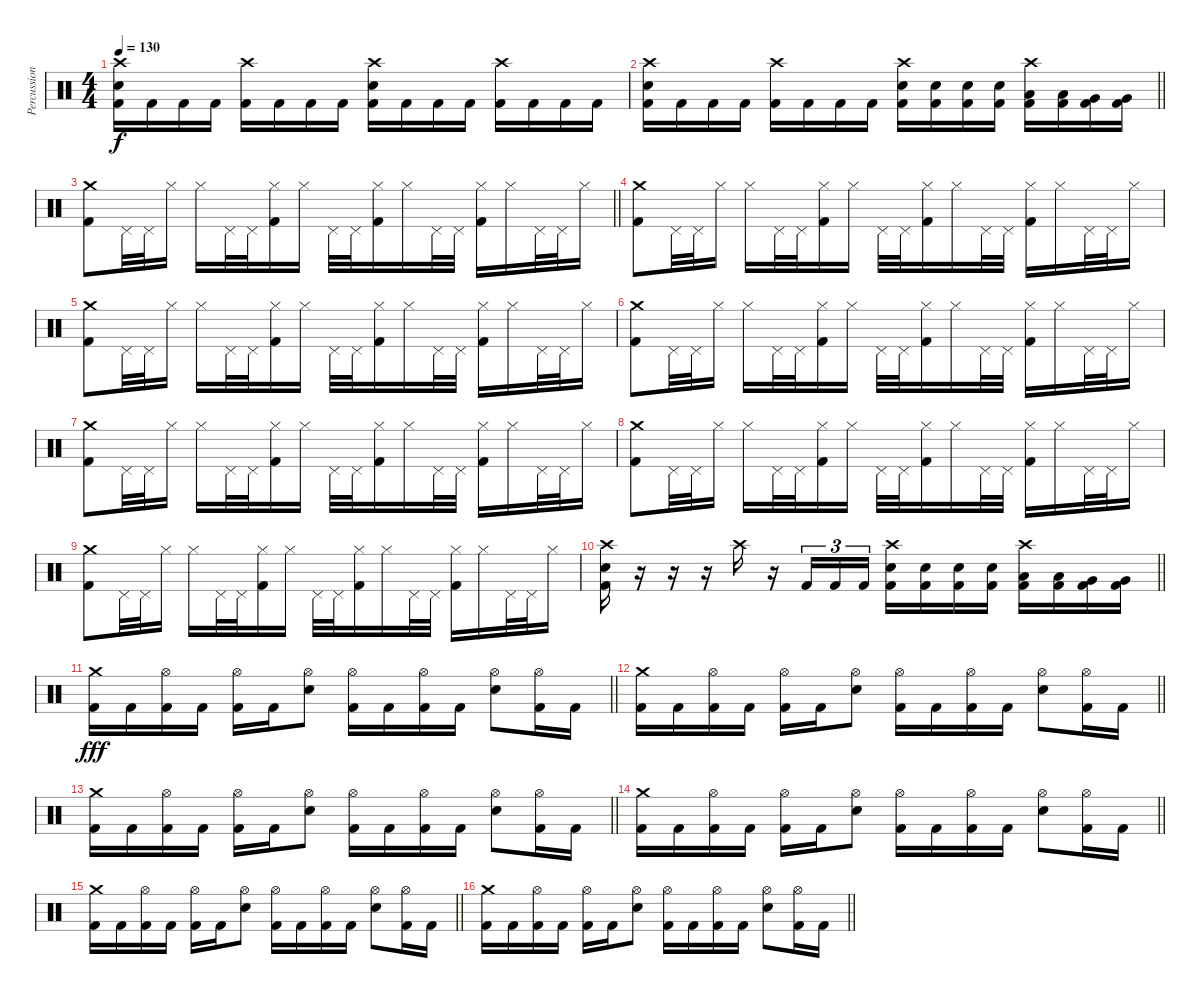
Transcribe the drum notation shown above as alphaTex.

\track ("Percussion" "Percussion") {instrument percussion}
\staff {score}
\articulation defaults
\ts (4 4)
\tempo 130
\clef neutral
\ks c
("Crash high (hit)" "Snare (hit) 2" "Kick (hit) 2").16{dy f} "Kick (hit) 2".16 "Kick (hit) 2".16 "Kick (hit) 2".16 ("Crash high (hit)" "Kick (hit) 2").16 "Kick (hit) 2".16 "Kick (hit) 2".16 "Kick (hit) 2".16 ("Crash high (hit)" "Snare (hit) 2" "Kick (hit) 2").16 "Kick (hit) 2".16 "Kick (hit) 2".16 "Kick (hit) 2".16 ("Crash high (hit)" "Kick (hit) 2").16 "Kick (hit) 2".16 "Kick (hit) 2".16 "Kick (hit) 2".16 |
\barLineRight lightlight
("Crash high (hit)" "Snare (hit) 2" "Kick (hit) 2").16 "Kick (hit) 2".16 "Kick (hit) 2".16 "Kick (hit) 2".16 ("Crash high (hit)" "Kick (hit) 2").16 "Kick (hit) 2".16 "Kick (hit) 2".16 "Kick (hit) 2".16 ("Crash high (hit)" "Snare (hit) 2" "Kick (hit) 2").16 ("Snare (hit) 2" "Kick (hit) 2").16 ("Snare (hit) 2" "Kick (hit) 2").16 ("Snare (hit) 2" "Kick (hit) 2").16 ("Crash high (hit)" "Low Tom (hit)" "Kick (hit) 2").16 ("Low Tom (hit)" "Kick (hit) 2").16 ("Very Low Tom (hit)" "Kick (hit) 2").16 ("Very Low Tom (hit)" "Kick (hit) 2").16 |
\section ("" "")
\barLineRight lightlight
("Crash medium (hit)" "Kick (hit) 2").8 "Pedal Hi-Hat (hit)".32 "Pedal Hi-Hat (hit)".32 "Hi-Hat (closed)".16 "Hi-Hat (closed)".16 "Pedal Hi-Hat (hit)".32 "Pedal Hi-Hat (hit)".32 ("Hi-Hat (closed)" "Kick (hit) 2").16 "Hi-Hat (closed)".16 "Pedal Hi-Hat (hit)".32 "Pedal Hi-Hat (hit)".32 ("Hi-Hat (closed)" "Kick (hit) 2").16 "Hi-Hat (closed)".16 "Pedal Hi-Hat (hit)".32 "Pedal Hi-Hat (hit)".32 ("Hi-Hat (closed)" "Kick (hit) 2").16 "Hi-Hat (closed)".16 "Pedal Hi-Hat (hit)".32 "Pedal Hi-Hat (hit)".32 "Hi-Hat (closed)".16 |
("Crash medium (hit)" "Kick (hit) 2").8 "Pedal Hi-Hat (hit)".32 "Pedal Hi-Hat (hit)".32 "Hi-Hat (closed)".16 "Hi-Hat (closed)".16 "Pedal Hi-Hat (hit)".32 "Pedal Hi-Hat (hit)".32 ("Hi-Hat (closed)" "Kick (hit) 2").16 "Hi-Hat (closed)".16 "Pedal Hi-Hat (hit)".32 "Pedal Hi-Hat (hit)".32 ("Hi-Hat (closed)" "Kick (hit) 2").16 "Hi-Hat (closed)".16 "Pedal Hi-Hat (hit)".32 "Pedal Hi-Hat (hit)".32 ("Hi-Hat (closed)" "Kick (hit) 2").16 "Hi-Hat (closed)".16 "Pedal Hi-Hat (hit)".32 "Pedal Hi-Hat (hit)".32 "Hi-Hat (closed)".16 |
("Crash medium (hit)" "Kick (hit) 2").8 "Pedal Hi-Hat (hit)".32 "Pedal Hi-Hat (hit)".32 "Hi-Hat (closed)".16 "Hi-Hat (closed)".16 "Pedal Hi-Hat (hit)".32 "Pedal Hi-Hat (hit)".32 ("Hi-Hat (closed)" "Kick (hit) 2").16 "Hi-Hat (closed)".16 "Pedal Hi-Hat (hit)".32 "Pedal Hi-Hat (hit)".32 ("Hi-Hat (closed)" "Kick (hit) 2").16 "Hi-Hat (closed)".16 "Pedal Hi-Hat (hit)".32 "Pedal Hi-Hat (hit)".32 ("Hi-Hat (closed)" "Kick (hit) 2").16 "Hi-Hat (closed)".16 "Pedal Hi-Hat (hit)".32 "Pedal Hi-Hat (hit)".32 "Hi-Hat (closed)".16 |
("Crash medium (hit)" "Kick (hit) 2").8 "Pedal Hi-Hat (hit)".32 "Pedal Hi-Hat (hit)".32 "Hi-Hat (closed)".16 "Hi-Hat (closed)".16 "Pedal Hi-Hat (hit)".32 "Pedal Hi-Hat (hit)".32 ("Hi-Hat (closed)" "Kick (hit) 2").16 "Hi-Hat (closed)".16 "Pedal Hi-Hat (hit)".32 "Pedal Hi-Hat (hit)".32 ("Hi-Hat (closed)" "Kick (hit) 2").16 "Hi-Hat (closed)".16 "Pedal Hi-Hat (hit)".32 "Pedal Hi-Hat (hit)".32 ("Hi-Hat (closed)" "Kick (hit) 2").16 "Hi-Hat (closed)".16 "Pedal Hi-Hat (hit)".32 "Pedal Hi-Hat (hit)".32 "Hi-Hat (closed)".16 |
("Crash medium (hit)" "Kick (hit) 2").8 "Pedal Hi-Hat (hit)".32 "Pedal Hi-Hat (hit)".32 "Hi-Hat (closed)".16 "Hi-Hat (closed)".16 "Pedal Hi-Hat (hit)".32 "Pedal Hi-Hat (hit)".32 ("Hi-Hat (closed)" "Kick (hit) 2").16 "Hi-Hat (closed)".16 "Pedal Hi-Hat (hit)".32 "Pedal Hi-Hat (hit)".32 ("Hi-Hat (closed)" "Kick (hit) 2").16 "Hi-Hat (closed)".16 "Pedal Hi-Hat (hit)".32 "Pedal Hi-Hat (hit)".32 ("Hi-Hat (closed)" "Kick (hit) 2").16 "Hi-Hat (closed)".16 "Pedal Hi-Hat (hit)".32 "Pedal Hi-Hat (hit)".32 "Hi-Hat (closed)".16 |
("Crash medium (hit)" "Kick (hit) 2").8 "Pedal Hi-Hat (hit)".32 "Pedal Hi-Hat (hit)".32 "Hi-Hat (closed)".16 "Hi-Hat (closed)".16 "Pedal Hi-Hat (hit)".32 "Pedal Hi-Hat (hit)".32 ("Hi-Hat (closed)" "Kick (hit) 2").16 "Hi-Hat (closed)".16 "Pedal Hi-Hat (hit)".32 "Pedal Hi-Hat (hit)".32 ("Hi-Hat (closed)" "Kick (hit) 2").16 "Hi-Hat (closed)".16 "Pedal Hi-Hat (hit)".32 "Pedal Hi-Hat (hit)".32 ("Hi-Hat (closed)" "Kick (hit) 2").16 "Hi-Hat (closed)".16 "Pedal Hi-Hat (hit)".32 "Pedal Hi-Hat (hit)".32 "Hi-Hat (closed)".16 |
("Crash medium (hit)" "Kick (hit) 2").8 "Pedal Hi-Hat (hit)".32 "Pedal Hi-Hat (hit)".32 "Hi-Hat (closed)".16 "Hi-Hat (closed)".16 "Pedal Hi-Hat (hit)".32 "Pedal Hi-Hat (hit)".32 ("Hi-Hat (closed)" "Kick (hit) 2").16 "Hi-Hat (closed)".16 "Pedal Hi-Hat (hit)".32 "Pedal Hi-Hat (hit)".32 ("Hi-Hat (closed)" "Kick (hit) 2").16 "Hi-Hat (closed)".16 "Pedal Hi-Hat (hit)".32 "Pedal Hi-Hat (hit)".32 ("Hi-Hat (closed)" "Kick (hit) 2").16 "Hi-Hat (closed)".16 "Pedal Hi-Hat (hit)".32 "Pedal Hi-Hat (hit)".32 "Hi-Hat (closed)".16 |
\barLineRight lightlight
("Crash high (hit)" "Snare (hit) 2" "Kick (hit) 2").16 r.16 r.16 r.16 "Crash high (hit)".16 r.16 "Kick (hit) 2".16{tu (3 2)} "Kick (hit) 2".16{tu (3 2)} "Kick (hit) 2".16{tu (3 2)} ("Crash high (hit)" "Snare (hit) 2" "Kick (hit) 2").16 ("Snare (hit) 2" "Kick (hit) 2").16 ("Snare (hit) 2" "Kick (hit) 2").16 ("Snare (hit) 2" "Kick (hit) 2").16 ("Crash high (hit)" "Low Tom (hit)" "Kick (hit) 2").16 ("Low Tom (hit)" "Kick (hit) 2").16 ("Very Low Tom (hit)" "Kick (hit) 2").16 ("Very Low Tom (hit)" "Kick (hit) 2").16 |
\section ("" "")
\barLineRight lightlight
("Crash medium (hit)" "Kick (hit) 2").16{dy fff} "Kick (hit) 2".16 ("Hi-Hat (open)" "Kick (hit) 2").16 "Kick (hit) 2".16 ("Hi-Hat (open)" "Kick (hit) 2").16 "Kick (hit) 2".16 ("Hi-Hat (open)" "Snare (hit) 2").8 ("Hi-Hat (open)" "Kick (hit) 2").16 "Kick (hit) 2".16 ("Hi-Hat (open)" "Kick (hit) 2").16 "Kick (hit) 2".16 ("Hi-Hat (open)" "Snare (hit) 2").8 ("Hi-Hat (open)" "Kick (hit) 2").16 "Kick (hit) 2".16 |
\barLineRight lightlight
("Crash medium (hit)" "Kick (hit) 2").16 "Kick (hit) 2".16 ("Hi-Hat (open)" "Kick (hit) 2").16 "Kick (hit) 2".16 ("Hi-Hat (open)" "Kick (hit) 2").16 "Kick (hit) 2".16 ("Hi-Hat (open)" "Snare (hit) 2").8 ("Hi-Hat (open)" "Kick (hit) 2").16 "Kick (hit) 2".16 ("Hi-Hat (open)" "Kick (hit) 2").16 "Kick (hit) 2".16 ("Hi-Hat (open)" "Snare (hit) 2").8 ("Hi-Hat (open)" "Kick (hit) 2").16 "Kick (hit) 2".16 |
\barLineRight lightlight
("Crash medium (hit)" "Kick (hit) 2").16 "Kick (hit) 2".16 ("Hi-Hat (open)" "Kick (hit) 2").16 "Kick (hit) 2".16 ("Hi-Hat (open)" "Kick (hit) 2").16 "Kick (hit) 2".16 ("Hi-Hat (open)" "Snare (hit) 2").8 ("Hi-Hat (open)" "Kick (hit) 2").16 "Kick (hit) 2".16 ("Hi-Hat (open)" "Kick (hit) 2").16 "Kick (hit) 2".16 ("Hi-Hat (open)" "Snare (hit) 2").8 ("Hi-Hat (open)" "Kick (hit) 2").16 "Kick (hit) 2".16 |
\barLineRight lightlight
("Crash medium (hit)" "Kick (hit) 2").16 "Kick (hit) 2".16 ("Hi-Hat (open)" "Kick (hit) 2").16 "Kick (hit) 2".16 ("Hi-Hat (open)" "Kick (hit) 2").16 "Kick (hit) 2".16 ("Hi-Hat (open)" "Snare (hit) 2").8 ("Hi-Hat (open)" "Kick (hit) 2").16 "Kick (hit) 2".16 ("Hi-Hat (open)" "Kick (hit) 2").16 "Kick (hit) 2".16 ("Hi-Hat (open)" "Snare (hit) 2").8 ("Hi-Hat (open)" "Kick (hit) 2").16 "Kick (hit) 2".16 |
\barLineRight lightlight
("Crash medium (hit)" "Kick (hit) 2").16 "Kick (hit) 2".16 ("Hi-Hat (open)" "Kick (hit) 2").16 "Kick (hit) 2".16 ("Hi-Hat (open)" "Kick (hit) 2").16 "Kick (hit) 2".16 ("Hi-Hat (open)" "Snare (hit) 2").8 ("Hi-Hat (open)" "Kick (hit) 2").16 "Kick (hit) 2".16 ("Hi-Hat (open)" "Kick (hit) 2").16 "Kick (hit) 2".16 ("Hi-Hat (open)" "Snare (hit) 2").8 ("Hi-Hat (open)" "Kick (hit) 2").16 "Kick (hit) 2".16 |
\barLineRight lightlight
("Crash medium (hit)" "Kick (hit) 2").16 "Kick (hit) 2".16 ("Hi-Hat (open)" "Kick (hit) 2").16 "Kick (hit) 2".16 ("Hi-Hat (open)" "Kick (hit) 2").16 "Kick (hit) 2".16 ("Hi-Hat (open)" "Snare (hit) 2").8 ("Hi-Hat (open)" "Kick (hit) 2").16 "Kick (hit) 2".16 ("Hi-Hat (open)" "Kick (hit) 2").16 "Kick (hit) 2".16 ("Hi-Hat (open)" "Snare (hit) 2").8 ("Hi-Hat (open)" "Kick (hit) 2").16 "Kick (hit) 2".16
